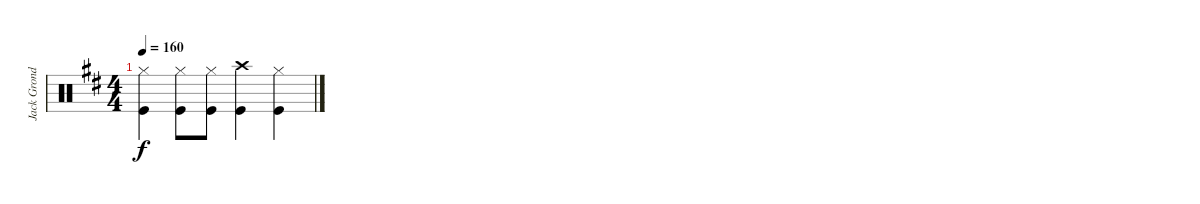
\track ("Jack Grondin Drums" "Jack Grond") {instrument percussion}
\staff {score}
\articulation defaults
\ts (4 4)
\tempo 160
\clef neutral
\ks d
("Hi-Hat (closed)" "Kick (hit)").4{dy f} ("Hi-Hat (closed)" "Kick (hit)").8 ("Hi-Hat (closed)" "Kick (hit)").8 ("Crash high (hit)" "Kick (hit)").4 ("Hi-Hat (closed)" "Kick (hit)").4
